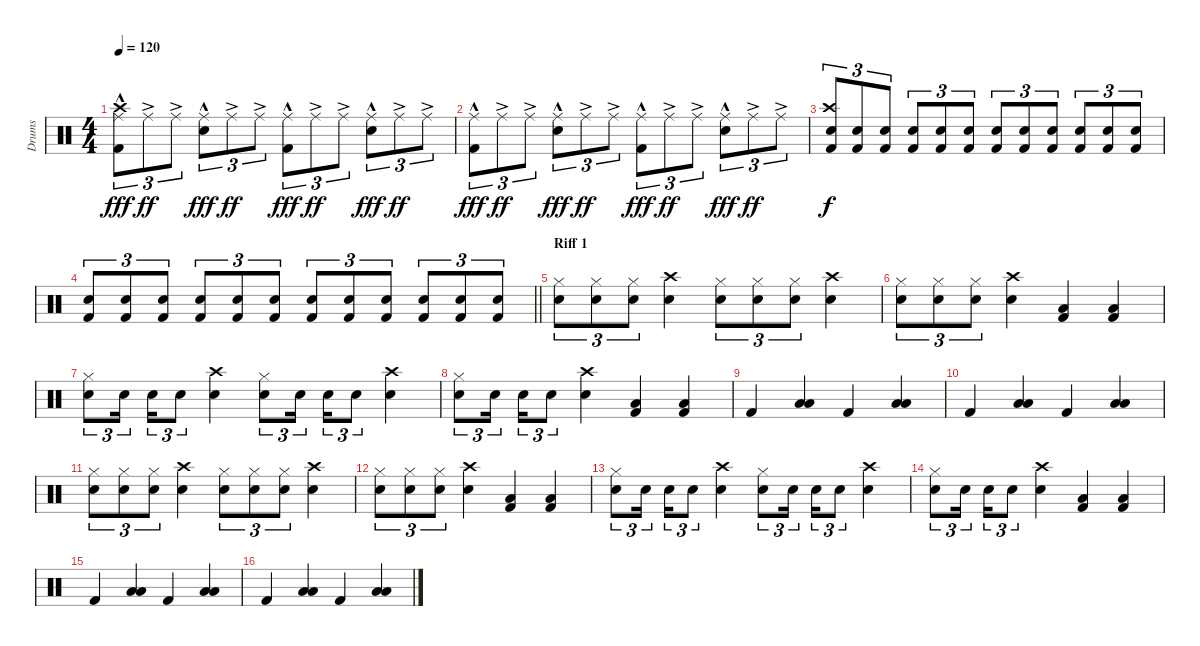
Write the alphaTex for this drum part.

\track ("Drums" "Drums") {instrument percussion}
\staff {score}
\articulation defaults
\ts (4 4)
\tempo 120
\clef neutral
\ks c
("Kick (hit) 2" "Crash high (hit)" "Ride (middle)"{hac}).8{tu (3 2) dy fff} "Ride (middle)"{ac}.8{tu (3 2) dy ff} "Ride (middle)"{ac}.8{tu (3 2)} ("Snare (hit) 2" "Ride (middle)"{hac}).8{tu (3 2) dy fff} "Ride (middle)"{ac}.8{tu (3 2) dy ff} "Ride (middle)"{ac}.8{tu (3 2)} ("Kick (hit) 2" "Ride (middle)"{hac}).8{tu (3 2) dy fff} "Ride (middle)"{ac}.8{tu (3 2) dy ff} "Ride (middle)"{ac}.8{tu (3 2)} ("Snare (hit) 2" "Ride (middle)"{hac}).8{tu (3 2) dy fff} "Ride (middle)"{ac}.8{tu (3 2) dy ff} "Ride (middle)"{ac}.8{tu (3 2)} |
("Kick (hit) 2" "Ride (middle)"{hac}).8{tu (3 2) dy fff} "Ride (middle)"{ac}.8{tu (3 2) dy ff} "Ride (middle)"{ac}.8{tu (3 2)} ("Snare (hit) 2" "Ride (middle)"{hac}).8{tu (3 2) dy fff} "Ride (middle)"{ac}.8{tu (3 2) dy ff} "Ride (middle)"{ac}.8{tu (3 2)} ("Kick (hit) 2" "Ride (middle)"{hac}).8{tu (3 2) dy fff} "Ride (middle)"{ac}.8{tu (3 2) dy ff} "Ride (middle)"{ac}.8{tu (3 2)} ("Snare (hit) 2" "Ride (middle)"{hac}).8{tu (3 2) dy fff} "Ride (middle)"{ac}.8{tu (3 2) dy ff} "Ride (middle)"{ac}.8{tu (3 2)} |
("Crash high (hit)" "Kick (hit) 2" "Snare (hit) 2").8{tu (3 2) dy f} ("Kick (hit) 2" "Snare (hit) 2").8{tu (3 2)} ("Kick (hit) 2" "Snare (hit) 2").8{tu (3 2)} ("Kick (hit) 2" "Snare (hit) 2").8{tu (3 2)} ("Kick (hit) 2" "Snare (hit) 2").8{tu (3 2)} ("Kick (hit) 2" "Snare (hit) 2").8{tu (3 2)} ("Kick (hit) 2" "Snare (hit) 2").8{tu (3 2)} ("Kick (hit) 2" "Snare (hit) 2").8{tu (3 2)} ("Kick (hit) 2" "Snare (hit) 2").8{tu (3 2)} ("Kick (hit) 2" "Snare (hit) 2").8{tu (3 2)} ("Kick (hit) 2" "Snare (hit) 2").8{tu (3 2)} ("Kick (hit) 2" "Snare (hit) 2").8{tu (3 2)} |
\barLineRight lightlight
("Kick (hit) 2" "Snare (hit) 2").8{tu (3 2)} ("Kick (hit) 2" "Snare (hit) 2").8{tu (3 2)} ("Kick (hit) 2" "Snare (hit) 2").8{tu (3 2)} ("Kick (hit) 2" "Snare (hit) 2").8{tu (3 2)} ("Kick (hit) 2" "Snare (hit) 2").8{tu (3 2)} ("Kick (hit) 2" "Snare (hit) 2").8{tu (3 2)} ("Kick (hit) 2" "Snare (hit) 2").8{tu (3 2)} ("Kick (hit) 2" "Snare (hit) 2").8{tu (3 2)} ("Kick (hit) 2" "Snare (hit) 2").8{tu (3 2)} ("Kick (hit) 2" "Snare (hit) 2").8{tu (3 2)} ("Kick (hit) 2" "Snare (hit) 2").8{tu (3 2)} ("Kick (hit) 2" "Snare (hit) 2").8{tu (3 2)} |
\section ("" "Riff 1")
("Snare (hit) 2" "Hi-Hat (closed)").8{tu (3 2)} ("Snare (hit) 2" "Hi-Hat (closed)").8{tu (3 2)} ("Snare (hit) 2" "Hi-Hat (closed)").8{tu (3 2)} ("Snare (hit) 2" "Crash high (hit)").4 ("Snare (hit) 2" "Hi-Hat (closed)").8{tu (3 2)} ("Snare (hit) 2" "Hi-Hat (closed)").8{tu (3 2)} ("Snare (hit) 2" "Hi-Hat (closed)").8{tu (3 2)} ("Snare (hit) 2" "Crash high (hit)").4 |
("Snare (hit) 2" "Hi-Hat (closed)").8{tu (3 2)} ("Snare (hit) 2" "Hi-Hat (closed)").8{tu (3 2)} ("Snare (hit) 2" "Hi-Hat (closed)").8{tu (3 2)} ("Snare (hit) 2" "Crash high (hit)").4 ("Low Tom (hit)" "Kick (hit) 2").4 ("Low Tom (hit)" "Kick (hit) 2").4 |
("Snare (hit) 2" "Hi-Hat (closed)").8{tu (3 2)} "Snare (hit) 2".16{tu (3 2) beam splitsecondary} "Snare (hit) 2".16{tu (3 2)} "Snare (hit) 2".8{tu (3 2)} ("Snare (hit) 2" "Crash high (hit)").4 ("Snare (hit) 2" "Hi-Hat (closed)").8{tu (3 2)} "Snare (hit) 2".16{tu (3 2) beam splitsecondary} "Snare (hit) 2".16{tu (3 2)} "Snare (hit) 2".8{tu (3 2)} ("Snare (hit) 2" "Crash high (hit)").4 |
("Snare (hit) 2" "Hi-Hat (closed)").8{tu (3 2)} "Snare (hit) 2".16{tu (3 2) beam splitsecondary} "Snare (hit) 2".16{tu (3 2)} "Snare (hit) 2".8{tu (3 2)} ("Snare (hit) 2" "Crash high (hit)").4 ("Low Tom (hit)" "Kick (hit) 2").4 ("Low Tom (hit)" "Kick (hit) 2").4 |
"Kick (hit) 2".4 ("Low Tom (hit)" "Low Tom (hit)").4 "Kick (hit) 2".4 ("Low Tom (hit)" "Low Tom (hit)").4 |
"Kick (hit) 2".4 ("Low Tom (hit)" "Low Tom (hit)").4 "Kick (hit) 2".4 ("Low Tom (hit)" "Low Tom (hit)").4 |
("Snare (hit) 2" "Hi-Hat (closed)").8{tu (3 2)} ("Snare (hit) 2" "Hi-Hat (closed)").8{tu (3 2)} ("Snare (hit) 2" "Hi-Hat (closed)").8{tu (3 2)} ("Snare (hit) 2" "Crash high (hit)").4 ("Snare (hit) 2" "Hi-Hat (closed)").8{tu (3 2)} ("Snare (hit) 2" "Hi-Hat (closed)").8{tu (3 2)} ("Snare (hit) 2" "Hi-Hat (closed)").8{tu (3 2)} ("Snare (hit) 2" "Crash high (hit)").4 |
("Snare (hit) 2" "Hi-Hat (closed)").8{tu (3 2)} ("Snare (hit) 2" "Hi-Hat (closed)").8{tu (3 2)} ("Snare (hit) 2" "Hi-Hat (closed)").8{tu (3 2)} ("Snare (hit) 2" "Crash high (hit)").4 ("Low Tom (hit)" "Kick (hit) 2").4 ("Low Tom (hit)" "Kick (hit) 2").4 |
("Snare (hit) 2" "Hi-Hat (closed)").8{tu (3 2)} "Snare (hit) 2".16{tu (3 2) beam splitsecondary} "Snare (hit) 2".16{tu (3 2)} "Snare (hit) 2".8{tu (3 2)} ("Snare (hit) 2" "Crash high (hit)").4 ("Snare (hit) 2" "Hi-Hat (closed)").8{tu (3 2)} "Snare (hit) 2".16{tu (3 2) beam splitsecondary} "Snare (hit) 2".16{tu (3 2)} "Snare (hit) 2".8{tu (3 2)} ("Snare (hit) 2" "Crash high (hit)").4 |
("Snare (hit) 2" "Hi-Hat (closed)").8{tu (3 2)} "Snare (hit) 2".16{tu (3 2) beam splitsecondary} "Snare (hit) 2".16{tu (3 2)} "Snare (hit) 2".8{tu (3 2)} ("Snare (hit) 2" "Crash high (hit)").4 ("Low Tom (hit)" "Kick (hit) 2").4 ("Low Tom (hit)" "Kick (hit) 2").4 |
"Kick (hit) 2".4 ("Low Tom (hit)" "Low Tom (hit)").4 "Kick (hit) 2".4 ("Low Tom (hit)" "Low Tom (hit)").4 |
"Kick (hit) 2".4 ("Low Tom (hit)" "Low Tom (hit)").4 "Kick (hit) 2".4 ("Low Tom (hit)" "Low Tom (hit)").4
